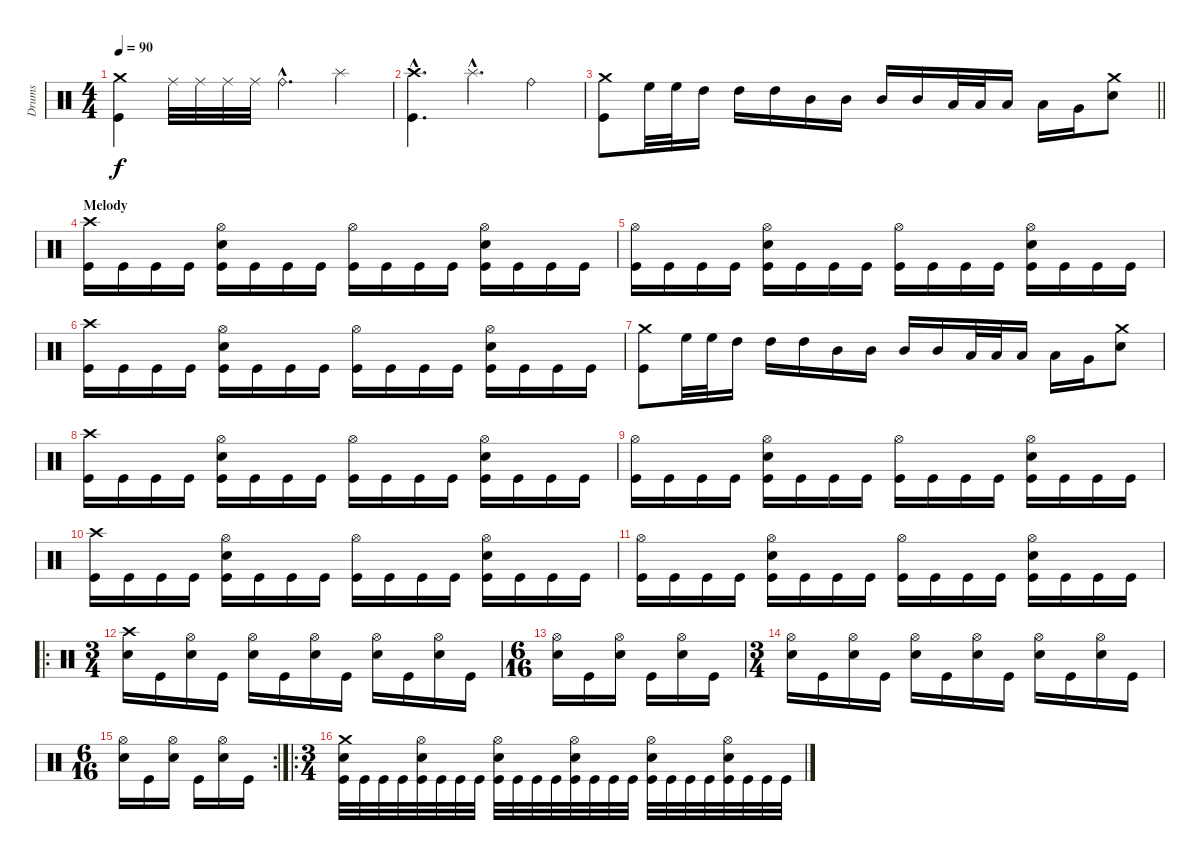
\track ("Drums" "Drums") {instrument percussion}
\staff {score}
\articulation defaults
\ts (4 4)
\tempo 90
\clef neutral
\ks c
("Crash medium (hit)" "Kick (hit)").4{dy f} "Ride (middle)".32 "Ride (middle)".32 "Ride (middle)".32 "Ride (middle)".32 "Ride (bell)"{hac}.4{d} "Splash (hit)".4 |
("Crash high (hit)"{hac} "Kick (hit)"{hac}).4{d} "Splash (hit)"{hac}.4{d} "Ride (bell)".4 |
\barLineRight lightlight
("Crash medium (hit)" "Kick (hit)").8 "High Floor Tom (hit)".32 "High Floor Tom (hit)".32 "High Tom (hit)".16 "High Tom (hit)".16 "High Tom (hit)".16 "Mid Tom (hit)".16 "Mid Tom (hit)".16 "Mid Tom (hit)".16 "Mid Tom (hit)".16 "Low Tom (hit)".32 "Low Tom (hit)".32 "Low Tom (hit)".16 "Low Tom (hit)".16 "Very Low Tom (hit)".16 ("Crash medium (hit)" "Electric Snare (hit)").8 |
\section ("" "Melody")
("Crash high (hit)" "Kick (hit)").16 "Kick (hit)".16 "Kick (hit)".16 "Kick (hit)".16 ("Hi-Hat (open)" "Electric Snare (hit)" "Kick (hit)").16 "Kick (hit)".16 "Kick (hit)".16 "Kick (hit)".16 ("Hi-Hat (open)" "Kick (hit)").16 "Kick (hit)".16 "Kick (hit)".16 "Kick (hit)".16 ("Hi-Hat (open)" "Electric Snare (hit)" "Kick (hit)").16 "Kick (hit)".16 "Kick (hit)".16 "Kick (hit)".16 |
("Hi-Hat (open)" "Kick (hit)").16 "Kick (hit)".16 "Kick (hit)".16 "Kick (hit)".16 ("Hi-Hat (open)" "Electric Snare (hit)" "Kick (hit)").16 "Kick (hit)".16 "Kick (hit)".16 "Kick (hit)".16 ("Hi-Hat (open)" "Kick (hit)").16 "Kick (hit)".16 "Kick (hit)".16 "Kick (hit)".16 ("Hi-Hat (open)" "Electric Snare (hit)" "Kick (hit)").16 "Kick (hit)".16 "Kick (hit)".16 "Kick (hit)".16 |
("Crash high (hit)" "Kick (hit)").16 "Kick (hit)".16 "Kick (hit)".16 "Kick (hit)".16 ("Hi-Hat (open)" "Electric Snare (hit)" "Kick (hit)").16 "Kick (hit)".16 "Kick (hit)".16 "Kick (hit)".16 ("Hi-Hat (open)" "Kick (hit)").16 "Kick (hit)".16 "Kick (hit)".16 "Kick (hit)".16 ("Hi-Hat (open)" "Electric Snare (hit)" "Kick (hit)").16 "Kick (hit)".16 "Kick (hit)".16 "Kick (hit)".16 |
("Crash medium (hit)" "Kick (hit)").8 "High Floor Tom (hit)".32 "High Floor Tom (hit)".32 "High Tom (hit)".16 "High Tom (hit)".16 "High Tom (hit)".16 "Mid Tom (hit)".16 "Mid Tom (hit)".16 "Mid Tom (hit)".16 "Mid Tom (hit)".16 "Low Tom (hit)".32 "Low Tom (hit)".32 "Low Tom (hit)".16 "Low Tom (hit)".16 "Very Low Tom (hit)".16 ("Crash medium (hit)" "Electric Snare (hit)").8 |
("Crash high (hit)" "Kick (hit)").16 "Kick (hit)".16 "Kick (hit)".16 "Kick (hit)".16 ("Hi-Hat (open)" "Electric Snare (hit)" "Kick (hit)").16 "Kick (hit)".16 "Kick (hit)".16 "Kick (hit)".16 ("Hi-Hat (open)" "Kick (hit)").16 "Kick (hit)".16 "Kick (hit)".16 "Kick (hit)".16 ("Hi-Hat (open)" "Electric Snare (hit)" "Kick (hit)").16 "Kick (hit)".16 "Kick (hit)".16 "Kick (hit)".16 |
("Hi-Hat (open)" "Kick (hit)").16 "Kick (hit)".16 "Kick (hit)".16 "Kick (hit)".16 ("Hi-Hat (open)" "Electric Snare (hit)" "Kick (hit)").16 "Kick (hit)".16 "Kick (hit)".16 "Kick (hit)".16 ("Hi-Hat (open)" "Kick (hit)").16 "Kick (hit)".16 "Kick (hit)".16 "Kick (hit)".16 ("Hi-Hat (open)" "Electric Snare (hit)" "Kick (hit)").16 "Kick (hit)".16 "Kick (hit)".16 "Kick (hit)".16 |
("Crash high (hit)" "Kick (hit)").16 "Kick (hit)".16 "Kick (hit)".16 "Kick (hit)".16 ("Hi-Hat (open)" "Electric Snare (hit)" "Kick (hit)").16 "Kick (hit)".16 "Kick (hit)".16 "Kick (hit)".16 ("Hi-Hat (open)" "Kick (hit)").16 "Kick (hit)".16 "Kick (hit)".16 "Kick (hit)".16 ("Hi-Hat (open)" "Electric Snare (hit)" "Kick (hit)").16 "Kick (hit)".16 "Kick (hit)".16 "Kick (hit)".16 |
("Hi-Hat (open)" "Kick (hit)").16 "Kick (hit)".16 "Kick (hit)".16 "Kick (hit)".16 ("Hi-Hat (open)" "Electric Snare (hit)" "Kick (hit)").16 "Kick (hit)".16 "Kick (hit)".16 "Kick (hit)".16 ("Hi-Hat (open)" "Kick (hit)").16 "Kick (hit)".16 "Kick (hit)".16 "Kick (hit)".16 ("Hi-Hat (open)" "Electric Snare (hit)" "Kick (hit)").16 "Kick (hit)".16 "Kick (hit)".16 "Kick (hit)".16 |
\ro
\ts (3 4)
("Crash high (hit)" "Electric Snare (hit)").16 "Kick (hit)".16 ("Hi-Hat (open)" "Electric Snare (hit)").16 "Kick (hit)".16 ("Hi-Hat (open)" "Electric Snare (hit)").16 "Kick (hit)".16 ("Hi-Hat (open)" "Electric Snare (hit)").16 "Kick (hit)".16 ("Hi-Hat (open)" "Electric Snare (hit)").16 "Kick (hit)".16 ("Hi-Hat (open)" "Electric Snare (hit)").16 "Kick (hit)".16 |
\ts (6 16)
("Hi-Hat (open)" "Electric Snare (hit)").16 "Kick (hit)".16 ("Hi-Hat (open)" "Electric Snare (hit)").16 "Kick (hit)".16 ("Hi-Hat (open)" "Electric Snare (hit)").16 "Kick (hit)".16 |
\ts (3 4)
("Hi-Hat (open)" "Electric Snare (hit)").16 "Kick (hit)".16 ("Hi-Hat (open)" "Electric Snare (hit)").16 "Kick (hit)".16 ("Hi-Hat (open)" "Electric Snare (hit)").16 "Kick (hit)".16 ("Hi-Hat (open)" "Electric Snare (hit)").16 "Kick (hit)".16 ("Hi-Hat (open)" "Electric Snare (hit)").16 "Kick (hit)".16 ("Hi-Hat (open)" "Electric Snare (hit)").16 "Kick (hit)".16 |
\rc 2
\ts (6 16)
("Hi-Hat (open)" "Electric Snare (hit)").16 "Kick (hit)".16 ("Hi-Hat (open)" "Electric Snare (hit)").16 "Kick (hit)".16 ("Hi-Hat (open)" "Electric Snare (hit)").16 "Kick (hit)".16 |
\ro
\ts (3 4)
("Crash medium (hit)" "Electric Snare (hit)" "Kick (hit)").32 "Kick (hit)".32 "Kick (hit)".32 "Kick (hit)".32 ("Hi-Hat (open)" "Electric Snare (hit)" "Kick (hit)").32 "Kick (hit)".32 "Kick (hit)".32 "Kick (hit)".32 ("Hi-Hat (open)" "Electric Snare (hit)" "Kick (hit)").32 "Kick (hit)".32 "Kick (hit)".32 "Kick (hit)".32 ("Hi-Hat (open)" "Electric Snare (hit)" "Kick (hit)").32 "Kick (hit)".32 "Kick (hit)".32 "Kick (hit)".32 ("Hi-Hat (open)" "Electric Snare (hit)" "Kick (hit)").32 "Kick (hit)".32 "Kick (hit)".32 "Kick (hit)".32 ("Hi-Hat (open)" "Electric Snare (hit)" "Kick (hit)").32 "Kick (hit)".32 "Kick (hit)".32 "Kick (hit)".32
